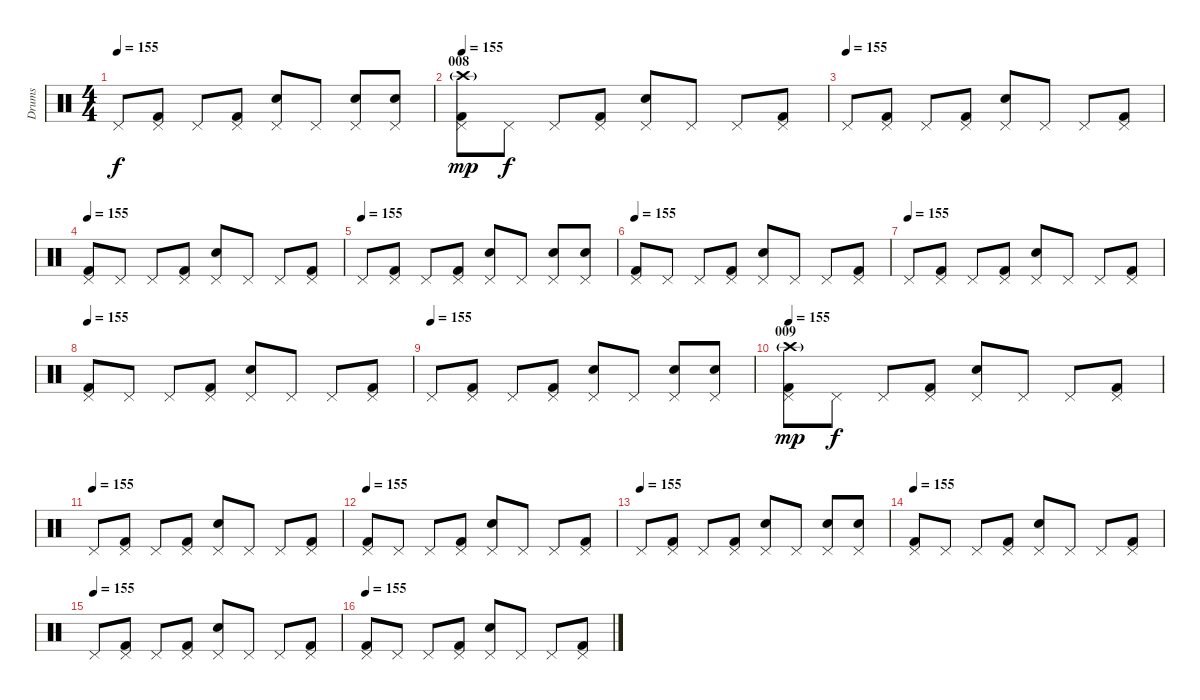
\track ("Drums" "Drums") {instrument percussion}
\staff {score}
\articulation defaults
\ts (4 4)
\tempo 155
\clef neutral
\ks c "Pedal Hi-Hat (hit)".8{dy f}
("Pedal Hi-Hat (hit)" "Kick (hit) 2").8 "Pedal Hi-Hat (hit)".8 ("Pedal Hi-Hat (hit)" "Kick (hit) 2").8 ("Pedal Hi-Hat (hit)" "Electric Snare (hit)").8 "Pedal Hi-Hat (hit)".8 ("Pedal Hi-Hat (hit)" "Electric Snare (hit)").8 ("Pedal Hi-Hat (hit)" "Electric Snare (hit)").8 |
\section ("" "008")
\tempo 155
("Pedal Hi-Hat (hit)" "Kick (hit) 2" "Crash high (hit)"{g}).8{dy mp} "Pedal Hi-Hat (hit)".8{dy f} "Pedal Hi-Hat (hit)".8 ("Pedal Hi-Hat (hit)" "Kick (hit) 2").8 ("Pedal Hi-Hat (hit)" "Electric Snare (hit)").8 "Pedal Hi-Hat (hit)".8 "Pedal Hi-Hat (hit)".8 ("Pedal Hi-Hat (hit)" "Kick (hit) 2").8 |
\tempo (155)
"Pedal Hi-Hat (hit)".8 ("Pedal Hi-Hat (hit)" "Kick (hit) 2").8 "Pedal Hi-Hat (hit)".8 ("Pedal Hi-Hat (hit)" "Kick (hit) 2").8 ("Pedal Hi-Hat (hit)" "Electric Snare (hit)").8 "Pedal Hi-Hat (hit)".8 "Pedal Hi-Hat (hit)".8 ("Pedal Hi-Hat (hit)" "Kick (hit) 2").8 |
\tempo 155
("Pedal Hi-Hat (hit)" "Kick (hit) 2").8 "Pedal Hi-Hat (hit)".8 "Pedal Hi-Hat (hit)".8 ("Pedal Hi-Hat (hit)" "Kick (hit) 2").8 ("Pedal Hi-Hat (hit)" "Electric Snare (hit)").8 "Pedal Hi-Hat (hit)".8 "Pedal Hi-Hat (hit)".8 ("Pedal Hi-Hat (hit)" "Kick (hit) 2").8 |
\tempo (155)
"Pedal Hi-Hat (hit)".8 ("Pedal Hi-Hat (hit)" "Kick (hit) 2").8 "Pedal Hi-Hat (hit)".8 ("Pedal Hi-Hat (hit)" "Kick (hit) 2").8 ("Pedal Hi-Hat (hit)" "Electric Snare (hit)").8 "Pedal Hi-Hat (hit)".8 ("Pedal Hi-Hat (hit)" "Electric Snare (hit)").8 ("Pedal Hi-Hat (hit)" "Electric Snare (hit)").8 |
\tempo 155
("Pedal Hi-Hat (hit)" "Kick (hit) 2").8 "Pedal Hi-Hat (hit)".8 "Pedal Hi-Hat (hit)".8 ("Pedal Hi-Hat (hit)" "Kick (hit) 2").8 ("Pedal Hi-Hat (hit)" "Electric Snare (hit)").8 "Pedal Hi-Hat (hit)".8 "Pedal Hi-Hat (hit)".8 ("Pedal Hi-Hat (hit)" "Kick (hit) 2").8 |
\tempo (155)
"Pedal Hi-Hat (hit)".8 ("Pedal Hi-Hat (hit)" "Kick (hit) 2").8 "Pedal Hi-Hat (hit)".8 ("Pedal Hi-Hat (hit)" "Kick (hit) 2").8 ("Pedal Hi-Hat (hit)" "Electric Snare (hit)").8 "Pedal Hi-Hat (hit)".8 "Pedal Hi-Hat (hit)".8 ("Pedal Hi-Hat (hit)" "Kick (hit) 2").8 |
\tempo 155
("Pedal Hi-Hat (hit)" "Kick (hit) 2").8 "Pedal Hi-Hat (hit)".8 "Pedal Hi-Hat (hit)".8 ("Pedal Hi-Hat (hit)" "Kick (hit) 2").8 ("Pedal Hi-Hat (hit)" "Electric Snare (hit)").8 "Pedal Hi-Hat (hit)".8 "Pedal Hi-Hat (hit)".8 ("Pedal Hi-Hat (hit)" "Kick (hit) 2").8 |
\tempo (155)
"Pedal Hi-Hat (hit)".8 ("Pedal Hi-Hat (hit)" "Kick (hit) 2").8 "Pedal Hi-Hat (hit)".8 ("Pedal Hi-Hat (hit)" "Kick (hit) 2").8 ("Pedal Hi-Hat (hit)" "Electric Snare (hit)").8 "Pedal Hi-Hat (hit)".8 ("Pedal Hi-Hat (hit)" "Electric Snare (hit)").8 ("Pedal Hi-Hat (hit)" "Electric Snare (hit)").8 |
\section ("" "009")
\tempo 155
("Pedal Hi-Hat (hit)" "Kick (hit) 2" "Crash high (hit)"{g}).8{dy mp} "Pedal Hi-Hat (hit)".8{dy f} "Pedal Hi-Hat (hit)".8 ("Pedal Hi-Hat (hit)" "Kick (hit) 2").8 ("Pedal Hi-Hat (hit)" "Electric Snare (hit)").8 "Pedal Hi-Hat (hit)".8 "Pedal Hi-Hat (hit)".8 ("Pedal Hi-Hat (hit)" "Kick (hit) 2").8 |
\tempo (155)
"Pedal Hi-Hat (hit)".8 ("Pedal Hi-Hat (hit)" "Kick (hit) 2").8 "Pedal Hi-Hat (hit)".8 ("Pedal Hi-Hat (hit)" "Kick (hit) 2").8 ("Pedal Hi-Hat (hit)" "Electric Snare (hit)").8 "Pedal Hi-Hat (hit)".8 "Pedal Hi-Hat (hit)".8 ("Pedal Hi-Hat (hit)" "Kick (hit) 2").8 |
\tempo 155
("Pedal Hi-Hat (hit)" "Kick (hit) 2").8 "Pedal Hi-Hat (hit)".8 "Pedal Hi-Hat (hit)".8 ("Pedal Hi-Hat (hit)" "Kick (hit) 2").8 ("Pedal Hi-Hat (hit)" "Electric Snare (hit)").8 "Pedal Hi-Hat (hit)".8 "Pedal Hi-Hat (hit)".8 ("Pedal Hi-Hat (hit)" "Kick (hit) 2").8 |
\tempo (155)
"Pedal Hi-Hat (hit)".8 ("Pedal Hi-Hat (hit)" "Kick (hit) 2").8 "Pedal Hi-Hat (hit)".8 ("Pedal Hi-Hat (hit)" "Kick (hit) 2").8 ("Pedal Hi-Hat (hit)" "Electric Snare (hit)").8 "Pedal Hi-Hat (hit)".8 ("Pedal Hi-Hat (hit)" "Electric Snare (hit)").8 ("Pedal Hi-Hat (hit)" "Electric Snare (hit)").8 |
\tempo 155
("Pedal Hi-Hat (hit)" "Kick (hit) 2").8 "Pedal Hi-Hat (hit)".8 "Pedal Hi-Hat (hit)".8 ("Pedal Hi-Hat (hit)" "Kick (hit) 2").8 ("Pedal Hi-Hat (hit)" "Electric Snare (hit)").8 "Pedal Hi-Hat (hit)".8 "Pedal Hi-Hat (hit)".8 ("Pedal Hi-Hat (hit)" "Kick (hit) 2").8 |
\tempo (155)
"Pedal Hi-Hat (hit)".8 ("Pedal Hi-Hat (hit)" "Kick (hit) 2").8 "Pedal Hi-Hat (hit)".8 ("Pedal Hi-Hat (hit)" "Kick (hit) 2").8 ("Pedal Hi-Hat (hit)" "Electric Snare (hit)").8 "Pedal Hi-Hat (hit)".8 "Pedal Hi-Hat (hit)".8 ("Pedal Hi-Hat (hit)" "Kick (hit) 2").8 |
\tempo 155
("Pedal Hi-Hat (hit)" "Kick (hit) 2").8 "Pedal Hi-Hat (hit)".8 "Pedal Hi-Hat (hit)".8 ("Pedal Hi-Hat (hit)" "Kick (hit) 2").8 ("Pedal Hi-Hat (hit)" "Electric Snare (hit)").8 "Pedal Hi-Hat (hit)".8 "Pedal Hi-Hat (hit)".8 ("Pedal Hi-Hat (hit)" "Kick (hit) 2").8
